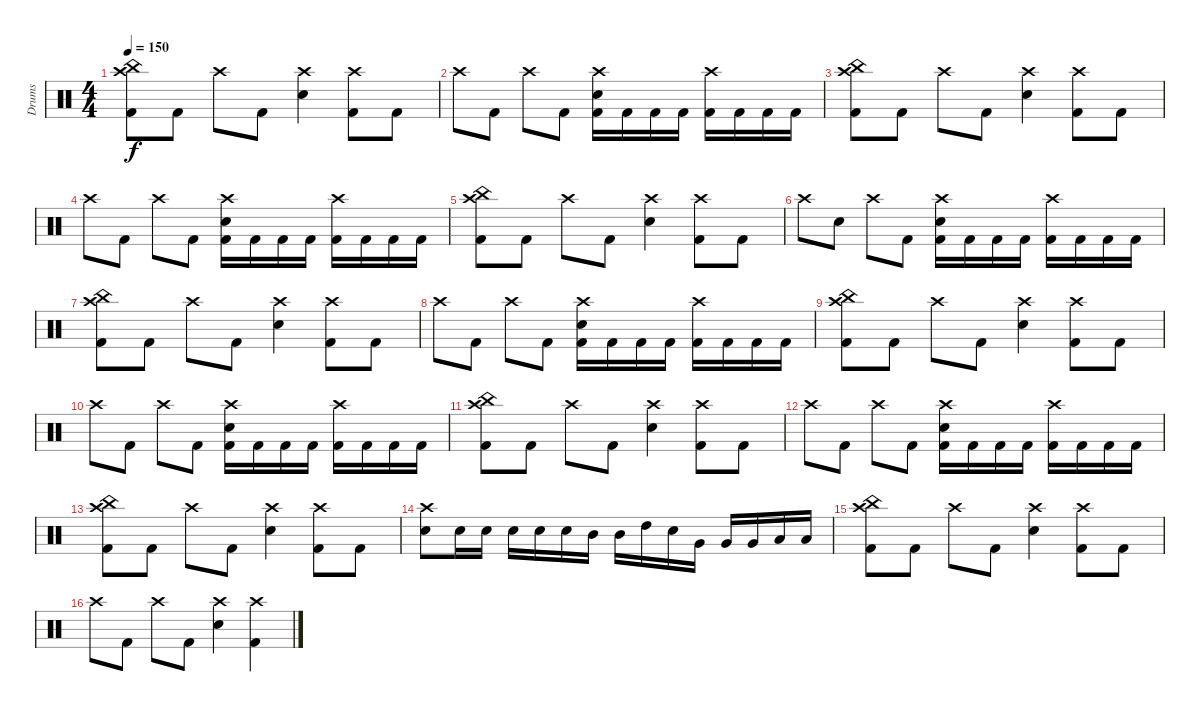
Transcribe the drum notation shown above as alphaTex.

\track ("Drums" "Drums") {instrument percussion}
\staff {score}
\articulation defaults
\ts (4 4)
\tempo 150
\clef neutral
\ks c
("Crash high (hit)" "China (hit)" "Kick (hit) 2").8{dy f} "Kick (hit) 2".8 "Crash high (hit)".8 "Kick (hit) 2".8 ("Crash high (hit)" "Electric Snare (hit)").4 ("Crash high (hit)" "Kick (hit) 2").8 "Kick (hit) 2".8 |
"Crash high (hit)".8 "Kick (hit) 2".8 "Crash high (hit)".8 "Kick (hit) 2".8 ("Crash high (hit)" "Electric Snare (hit)" "Kick (hit) 2").16 "Kick (hit) 2".16 "Kick (hit) 2".16 "Kick (hit) 2".16 ("Crash high (hit)" "Kick (hit) 2").16 "Kick (hit) 2".16 "Kick (hit) 2".16 "Kick (hit) 2".16 |
("Crash high (hit)" "China (hit)" "Kick (hit) 2").8 "Kick (hit) 2".8 "Crash high (hit)".8 "Kick (hit) 2".8 ("Crash high (hit)" "Electric Snare (hit)").4 ("Crash high (hit)" "Kick (hit) 2").8 "Kick (hit) 2".8 |
"Crash high (hit)".8 "Kick (hit) 2".8 "Crash high (hit)".8 "Kick (hit) 2".8 ("Crash high (hit)" "Electric Snare (hit)" "Kick (hit) 2").16 "Kick (hit) 2".16 "Kick (hit) 2".16 "Kick (hit) 2".16 ("Crash high (hit)" "Kick (hit) 2").16 "Kick (hit) 2".16 "Kick (hit) 2".16 "Kick (hit) 2".16 |
("Crash high (hit)" "China (hit)" "Kick (hit) 2").8 "Kick (hit) 2".8 "Crash high (hit)".8 "Kick (hit) 2".8 ("Crash high (hit)" "Electric Snare (hit)").4 ("Crash high (hit)" "Kick (hit) 2").8 "Kick (hit) 2".8 |
"Crash high (hit)".8 "Electric Snare (hit)".8 "Crash high (hit)".8 "Kick (hit) 2".8 ("Crash high (hit)" "Electric Snare (hit)" "Kick (hit) 2").16 "Kick (hit) 2".16 "Kick (hit) 2".16 "Kick (hit) 2".16 ("Crash high (hit)" "Kick (hit) 2").16 "Kick (hit) 2".16 "Kick (hit) 2".16 "Kick (hit) 2".16 |
("Crash high (hit)" "China (hit)" "Kick (hit) 2").8 "Kick (hit) 2".8 "Crash high (hit)".8 "Kick (hit) 2".8 ("Crash high (hit)" "Electric Snare (hit)").4 ("Crash high (hit)" "Kick (hit) 2").8 "Kick (hit) 2".8 |
"Crash high (hit)".8 "Kick (hit) 2".8 "Crash high (hit)".8 "Kick (hit) 2".8 ("Crash high (hit)" "Electric Snare (hit)" "Kick (hit) 2").16 "Kick (hit) 2".16 "Kick (hit) 2".16 "Kick (hit) 2".16 ("Crash high (hit)" "Kick (hit) 2").16 "Kick (hit) 2".16 "Kick (hit) 2".16 "Kick (hit) 2".16 |
("Crash high (hit)" "China (hit)" "Kick (hit) 2").8 "Kick (hit) 2".8 "Crash high (hit)".8 "Kick (hit) 2".8 ("Crash high (hit)" "Electric Snare (hit)").4 ("Crash high (hit)" "Kick (hit) 2").8 "Kick (hit) 2".8 |
"Crash high (hit)".8 "Kick (hit) 2".8 "Crash high (hit)".8 "Kick (hit) 2".8 ("Crash high (hit)" "Electric Snare (hit)" "Kick (hit) 2").16 "Kick (hit) 2".16 "Kick (hit) 2".16 "Kick (hit) 2".16 ("Crash high (hit)" "Kick (hit) 2").16 "Kick (hit) 2".16 "Kick (hit) 2".16 "Kick (hit) 2".16 |
("Crash high (hit)" "China (hit)" "Kick (hit) 2").8 "Kick (hit) 2".8 "Crash high (hit)".8 "Kick (hit) 2".8 ("Crash high (hit)" "Electric Snare (hit)").4 ("Crash high (hit)" "Kick (hit) 2").8 "Kick (hit) 2".8 |
"Crash high (hit)".8 "Kick (hit) 2".8 "Crash high (hit)".8 "Kick (hit) 2".8 ("Crash high (hit)" "Electric Snare (hit)" "Kick (hit) 2").16 "Kick (hit) 2".16 "Kick (hit) 2".16 "Kick (hit) 2".16 ("Crash high (hit)" "Kick (hit) 2").16 "Kick (hit) 2".16 "Kick (hit) 2".16 "Kick (hit) 2".16 |
("Crash high (hit)" "China (hit)" "Kick (hit) 2").8 "Kick (hit) 2".8 "Crash high (hit)".8 "Kick (hit) 2".8 ("Crash high (hit)" "Electric Snare (hit)").4 ("Crash high (hit)" "Kick (hit) 2").8 "Kick (hit) 2".8 |
("Crash high (hit)" "Electric Snare (hit)").8 "Electric Snare (hit)".16 "Electric Snare (hit)".16 "Electric Snare (hit)".16 "Electric Snare (hit)".16 "Electric Snare (hit)".16 "Mid Tom (hit)".16 "Mid Tom (hit)".16 "High Tom (hit)".16 "Electric Snare (hit)".16 "Very Low Tom (hit)".16 "Very Low Tom (hit)".16 "Very Low Tom (hit)".16 "Low Floor Tom (hit)".16 "Low Floor Tom (hit)".16 |
("Crash high (hit)" "China (hit)" "Kick (hit) 2").8 "Kick (hit) 2".8 "Crash high (hit)".8 "Kick (hit) 2".8 ("Crash high (hit)" "Electric Snare (hit)").4 ("Crash high (hit)" "Kick (hit) 2").8 "Kick (hit) 2".8 |
"Crash high (hit)".8 "Kick (hit) 2".8 "Crash high (hit)".8 "Kick (hit) 2".8 ("Crash high (hit)" "Electric Snare (hit)").4 ("Kick (hit) 2" "Crash high (hit)").4
